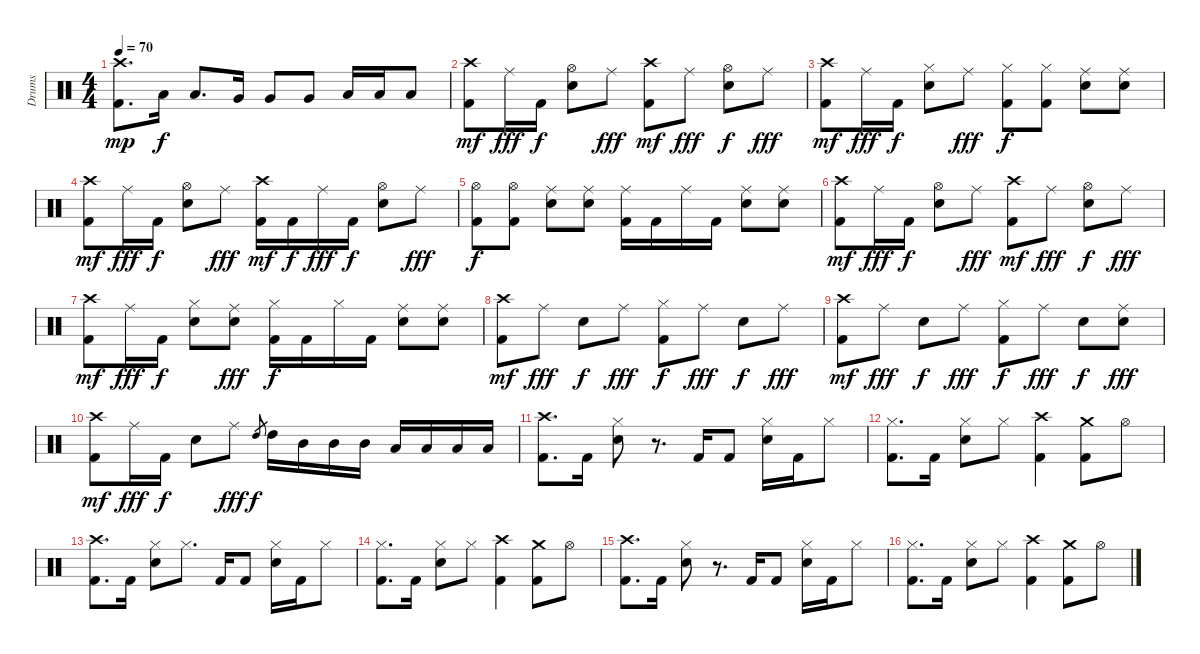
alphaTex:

\track ("Drums" "Drums") {instrument percussion}
\staff {score}
\articulation defaults
\ts (4 4)
\tempo 70
\clef neutral
\ks c
("Kick (hit) 2" "Crash high (hit)").8{d dy mp} "Low Tom (hit)".16{dy f} "Low Tom (hit)".8{d} "Very Low Tom (hit)".16 "Very Low Tom (hit)".8 "Very Low Tom (hit)".8 "Low Floor Tom (hit)".16 "Low Floor Tom (hit)".16 "Low Floor Tom (hit)".8 |
("Kick (hit) 2" "Crash high (hit)").8{dy mf volume 14} "Ride (middle)".16{dy fff} "Kick (hit) 2".16{dy f} ("Snare (hit) 2" "Hi-Hat (open)").8 "Ride (middle)".8{dy fff} ("Kick (hit) 2" "Crash high (hit)").8{dy mf} "Ride (middle)".8{dy fff} ("Snare (hit) 2" "Hi-Hat (open)").8{dy f} "Ride (middle)".8{dy fff} |
("Kick (hit) 2" "Crash high (hit)").8{dy mf} "Ride (middle)".16{dy fff} "Kick (hit) 2".16{dy f} ("Snare (hit) 2" "Hi-Hat (closed)").8 "Ride (middle)".8{dy fff} ("Kick (hit) 2" "Hi-Hat (closed)").8{dy f} ("Kick (hit) 2" "Hi-Hat (closed)").8 ("Snare (hit) 2" "Ride (middle)").8 ("Snare (hit) 2" "Ride (middle)").8 |
("Kick (hit) 2" "Crash high (hit)").8{dy mf} "Ride (middle)".16{dy fff} "Kick (hit) 2".16{dy f} ("Snare (hit) 2" "Hi-Hat (open)").8 "Ride (middle)".8{dy fff} ("Kick (hit) 2" "Crash high (hit)").16{dy mf} "Kick (hit) 2".16{dy f} "Ride (middle)".16{dy fff} "Kick (hit) 2".16{dy f} ("Snare (hit) 2" "Hi-Hat (open)").8 "Ride (middle)".8{dy fff} |
("Kick (hit) 2" "Hi-Hat (open)").8{dy f} ("Kick (hit) 2" "Hi-Hat (open)").8 ("Snare (hit) 2" "Ride (middle)").8 ("Snare (hit) 2" "Ride (middle)").8 ("Kick (hit) 2" "Ride (middle)").16 "Kick (hit) 2".16 "Ride (middle)".16 "Kick (hit) 2".16 ("Snare (hit) 2" "Ride (middle)").8 ("Snare (hit) 2" "Ride (middle)").8 |
("Kick (hit) 2" "Crash high (hit)").8{dy mf} "Ride (middle)".16{dy fff} "Kick (hit) 2".16{dy f} ("Snare (hit) 2" "Hi-Hat (open)").8 "Ride (middle)".8{dy fff} ("Kick (hit) 2" "Crash high (hit)").8{dy mf} "Ride (middle)".8{dy fff} ("Snare (hit) 2" "Hi-Hat (open)").8{dy f} "Ride (middle)".8{dy fff} |
("Kick (hit) 2" "Crash high (hit)").8{dy mf} "Ride (middle)".16{dy fff} "Kick (hit) 2".16{dy f} ("Snare (hit) 2" "Hi-Hat (closed)").8 ("Snare (hit) 2" "Ride (middle)").8{dy fff} ("Kick (hit) 2" "Hi-Hat (closed)").16{dy f} "Kick (hit) 2".16 "Hi-Hat (closed)".16 "Kick (hit) 2".16 ("Snare (hit) 2" "Ride (middle)").8 ("Snare (hit) 2" "Ride (middle)").8 |
("Kick (hit) 2" "Crash high (hit)").8{dy mf} "Ride (middle)".8{dy fff} "Snare (hit) 2".8{dy f} "Ride (middle)".8{dy fff} ("Kick (hit) 2" "Hi-Hat (closed)").8{dy f} "Ride (middle)".8{dy fff} "Snare (hit) 2".8{dy f} "Ride (middle)".8{dy fff} |
("Kick (hit) 2" "Crash high (hit)").8{dy mf} "Ride (middle)".8{dy fff} "Snare (hit) 2".8{dy f} "Ride (middle)".8{dy fff} ("Kick (hit) 2" "Hi-Hat (closed)").8{dy f} "Ride (middle)".8{dy fff} "Snare (hit) 2".8{dy f} ("Snare (hit) 2" "Ride (middle)").8{dy fff} |
("Kick (hit) 2" "Crash high (hit)").8{dy mf} "Ride (middle)".16{dy fff} "Kick (hit) 2".16{dy f} "Snare (hit) 2".8 "Ride (middle)".8{dy fff} "High Tom (hit)".8{gr dy f} "High Tom (hit)".16 "Mid Tom (hit)".16 "Mid Tom (hit)".16 "Mid Tom (hit)".16 "Low Tom (hit)".16 "Low Tom (hit)".16 "Low Tom (hit)".16 "Low Tom (hit)".16 |
("Kick (hit) 2" "Crash high (hit)").8{d} "Kick (hit) 2".16 ("Snare (hit) 2" "Hi-Hat (closed)").8 r.8{d} "Kick (hit) 2".16 "Kick (hit) 2".8 ("Snare (hit) 2" "Hi-Hat (closed)").16 "Kick (hit) 2".16 "Hi-Hat (closed)".8 |
("Kick (hit) 2" "Hi-Hat (closed)").8{d} "Kick (hit) 2".16 ("Snare (hit) 2" "Hi-Hat (closed)").8 "Hi-Hat (closed)".8 ("Kick (hit) 2" "Crash high (hit)").4 ("Kick (hit) 2" "Crash medium (hit)").8 "Hi-Hat (open)".8 |
("Kick (hit) 2" "Crash high (hit)").8{d} "Kick (hit) 2".16 ("Snare (hit) 2" "Hi-Hat (closed)").8 "Hi-Hat (closed)".8{d} "Kick (hit) 2".16 "Kick (hit) 2".8 ("Snare (hit) 2" "Hi-Hat (closed)").16 "Kick (hit) 2".16 "Hi-Hat (closed)".8 |
("Kick (hit) 2" "Hi-Hat (closed)").8{d} "Kick (hit) 2".16 ("Snare (hit) 2" "Hi-Hat (closed)").8 "Hi-Hat (closed)".8 ("Kick (hit) 2" "Crash high (hit)").4 ("Kick (hit) 2" "Crash medium (hit)").8 "Hi-Hat (open)".8 |
("Kick (hit) 2" "Crash high (hit)").8{d} "Kick (hit) 2".16 ("Snare (hit) 2" "Hi-Hat (closed)").8 r.8{d} "Kick (hit) 2".16 "Kick (hit) 2".8 ("Snare (hit) 2" "Hi-Hat (closed)").16 "Kick (hit) 2".16 "Hi-Hat (closed)".8 |
("Kick (hit) 2" "Hi-Hat (closed)").8{d} "Kick (hit) 2".16 ("Snare (hit) 2" "Hi-Hat (closed)").8 "Hi-Hat (closed)".8 ("Kick (hit) 2" "Crash high (hit)").4 ("Kick (hit) 2" "Crash medium (hit)").8 "Hi-Hat (open)".8
